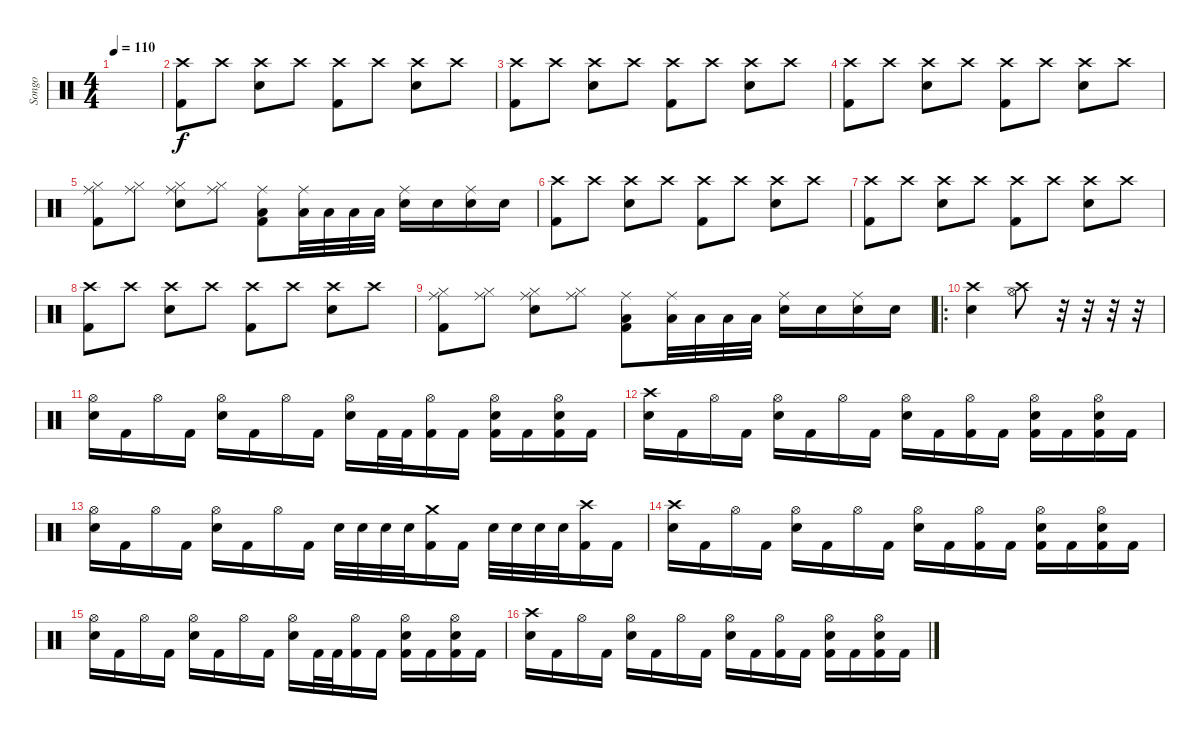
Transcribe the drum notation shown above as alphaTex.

\track ("Songo" "Songo") {instrument percussion}
\staff {score}
\articulation defaults
\ts (4 4)
\tempo 110
\clef neutral
\ks c
|
("Crash high (hit)" "Kick (hit) 2").8 "Crash high (hit)".8 ("Crash high (hit)" "Electric Snare (hit)").8 "Crash high (hit)".8 ("Crash high (hit)" "Kick (hit) 2").8 "Crash high (hit)".8 ("Crash high (hit)" "Electric Snare (hit)").8 "Crash high (hit)".8 |
("Crash high (hit)" "Kick (hit) 2").8 "Crash high (hit)".8 ("Crash high (hit)" "Electric Snare (hit)").8 "Crash high (hit)".8 ("Crash high (hit)" "Kick (hit) 2").8 "Crash high (hit)".8 ("Crash high (hit)" "Electric Snare (hit)").8 "Crash high (hit)".8 |
("Crash high (hit)" "Kick (hit) 2").8 "Crash high (hit)".8 ("Crash high (hit)" "Electric Snare (hit)").8 "Crash high (hit)".8 ("Crash high (hit)" "Kick (hit) 2").8 "Crash high (hit)".8 ("Crash high (hit)" "Electric Snare (hit)").8 "Crash high (hit)".8 |
("Ride (middle)" "Hi-Hat (closed)" "Kick (hit) 2").8 ("Ride (middle)" "Hi-Hat (closed)").8 ("Hi-Hat (closed)" "Ride (middle)" "Electric Snare (hit)").8 ("Ride (middle)" "Hi-Hat (closed)").8 ("Ride (middle)" "Low Tom (hit)" "Kick (hit) 2").8 ("Ride (middle)" "Low Tom (hit)").32 "Low Tom (hit)".32 "Low Tom (hit)".32 "Low Tom (hit)".32 ("Ride (middle)" "Electric Snare (hit)").16 "Electric Snare (hit)".16 ("Ride (middle)" "Electric Snare (hit)").16 "Electric Snare (hit)".16 |
("Crash high (hit)" "Kick (hit) 2").8 "Crash high (hit)".8 ("Crash high (hit)" "Electric Snare (hit)").8 "Crash high (hit)".8 ("Crash high (hit)" "Kick (hit) 2").8 "Crash high (hit)".8 ("Crash high (hit)" "Electric Snare (hit)").8 "Crash high (hit)".8 |
("Crash high (hit)" "Kick (hit) 2").8 "Crash high (hit)".8 ("Crash high (hit)" "Electric Snare (hit)").8 "Crash high (hit)".8 ("Crash high (hit)" "Kick (hit) 2").8 "Crash high (hit)".8 ("Crash high (hit)" "Electric Snare (hit)").8 "Crash high (hit)".8 |
("Crash high (hit)" "Kick (hit) 2").8 "Crash high (hit)".8 ("Crash high (hit)" "Electric Snare (hit)").8 "Crash high (hit)".8 ("Crash high (hit)" "Kick (hit) 2").8 "Crash high (hit)".8 ("Crash high (hit)" "Electric Snare (hit)").8 "Crash high (hit)".8 |
("Ride (middle)" "Hi-Hat (closed)" "Kick (hit) 2").8 ("Ride (middle)" "Hi-Hat (closed)").8 ("Hi-Hat (closed)" "Ride (middle)" "Electric Snare (hit)").8 ("Ride (middle)" "Hi-Hat (closed)").8 ("Ride (middle)" "Low Tom (hit)" "Kick (hit) 2").8 ("Ride (middle)" "Low Tom (hit)").32 "Low Tom (hit)".32 "Low Tom (hit)".32 "Low Tom (hit)".32 ("Ride (middle)" "Electric Snare (hit)").16 "Electric Snare (hit)".16 ("Ride (middle)" "Electric Snare (hit)").16 "Electric Snare (hit)".16 |
\ro
("Snare (hit) 2" "Crash high (hit)").4 ("Crash high (hit)" "Hi-Hat (open)").8 r.32 r.32 r.32 r.32 |
("Hi-Hat (open)" "Snare (hit) 2").16 "Kick (hit) 2".16 "Hi-Hat (open)".16 "Kick (hit) 2".16 ("Hi-Hat (open)" "Snare (hit) 2").16 "Kick (hit) 2".16 "Hi-Hat (open)".16 "Kick (hit) 2".16 ("Hi-Hat (open)" "Snare (hit) 2").16 "Kick (hit) 2".32 "Kick (hit) 2".32 ("Hi-Hat (open)" "Kick (hit) 2").16 "Kick (hit) 2".16 ("Hi-Hat (open)" "Snare (hit) 2" "Kick (hit) 2").16 "Kick (hit) 2".16 ("Hi-Hat (open)" "Snare (hit) 2" "Kick (hit) 2").16 "Kick (hit) 2".16 |
("Crash high (hit)" "Snare (hit) 2").16 "Kick (hit) 2".16 "Hi-Hat (open)".16 "Kick (hit) 2".16 ("Hi-Hat (open)" "Snare (hit) 2").16 "Kick (hit) 2".16 "Hi-Hat (open)".16 "Kick (hit) 2".16 ("Hi-Hat (open)" "Snare (hit) 2").16 "Kick (hit) 2".16 ("Hi-Hat (open)" "Kick (hit) 2").16 "Kick (hit) 2".16 ("Hi-Hat (open)" "Snare (hit) 2" "Kick (hit) 2").16 "Kick (hit) 2".16 ("Hi-Hat (open)" "Snare (hit) 2" "Kick (hit) 2").16 "Kick (hit) 2".16 |
("Hi-Hat (open)" "Snare (hit) 2").16 "Kick (hit) 2".16 "Hi-Hat (open)".16 "Kick (hit) 2".16 ("Hi-Hat (open)" "Snare (hit) 2").16 "Kick (hit) 2".16 "Hi-Hat (open)".16 "Kick (hit) 2".16 "Snare (hit) 2".32 "Snare (hit) 2".32 "Snare (hit) 2".32 "Snare (hit) 2".32 ("Crash medium (hit)" "Kick (hit) 2").16 "Kick (hit) 2".16 "Snare (hit) 2".32 "Snare (hit) 2".32 "Snare (hit) 2".32 "Snare (hit) 2".32 ("Crash high (hit)" "Kick (hit) 2").16 "Kick (hit) 2".16 |
("Crash high (hit)" "Snare (hit) 2").16 "Kick (hit) 2".16 "Hi-Hat (open)".16 "Kick (hit) 2".16 ("Hi-Hat (open)" "Snare (hit) 2").16 "Kick (hit) 2".16 "Hi-Hat (open)".16 "Kick (hit) 2".16 ("Hi-Hat (open)" "Snare (hit) 2").16 "Kick (hit) 2".16 ("Hi-Hat (open)" "Kick (hit) 2").16 "Kick (hit) 2".16 ("Hi-Hat (open)" "Snare (hit) 2" "Kick (hit) 2").16 "Kick (hit) 2".16 ("Hi-Hat (open)" "Snare (hit) 2" "Kick (hit) 2").16 "Kick (hit) 2".16 |
("Hi-Hat (open)" "Snare (hit) 2").16 "Kick (hit) 2".16 "Hi-Hat (open)".16 "Kick (hit) 2".16 ("Hi-Hat (open)" "Snare (hit) 2").16 "Kick (hit) 2".16 "Hi-Hat (open)".16 "Kick (hit) 2".16 ("Hi-Hat (open)" "Snare (hit) 2").16 "Kick (hit) 2".32 "Kick (hit) 2".32 ("Hi-Hat (open)" "Kick (hit) 2").16 "Kick (hit) 2".16 ("Hi-Hat (open)" "Snare (hit) 2" "Kick (hit) 2").16 "Kick (hit) 2".16 ("Hi-Hat (open)" "Snare (hit) 2" "Kick (hit) 2").16 "Kick (hit) 2".16 |
("Crash high (hit)" "Snare (hit) 2").16 "Kick (hit) 2".16 "Hi-Hat (open)".16 "Kick (hit) 2".16 ("Hi-Hat (open)" "Snare (hit) 2").16 "Kick (hit) 2".16 "Hi-Hat (open)".16 "Kick (hit) 2".16 ("Hi-Hat (open)" "Snare (hit) 2").16 "Kick (hit) 2".16 ("Hi-Hat (open)" "Kick (hit) 2").16 "Kick (hit) 2".16 ("Hi-Hat (open)" "Snare (hit) 2" "Kick (hit) 2").16 "Kick (hit) 2".16 ("Hi-Hat (open)" "Snare (hit) 2" "Kick (hit) 2").16 "Kick (hit) 2".16
